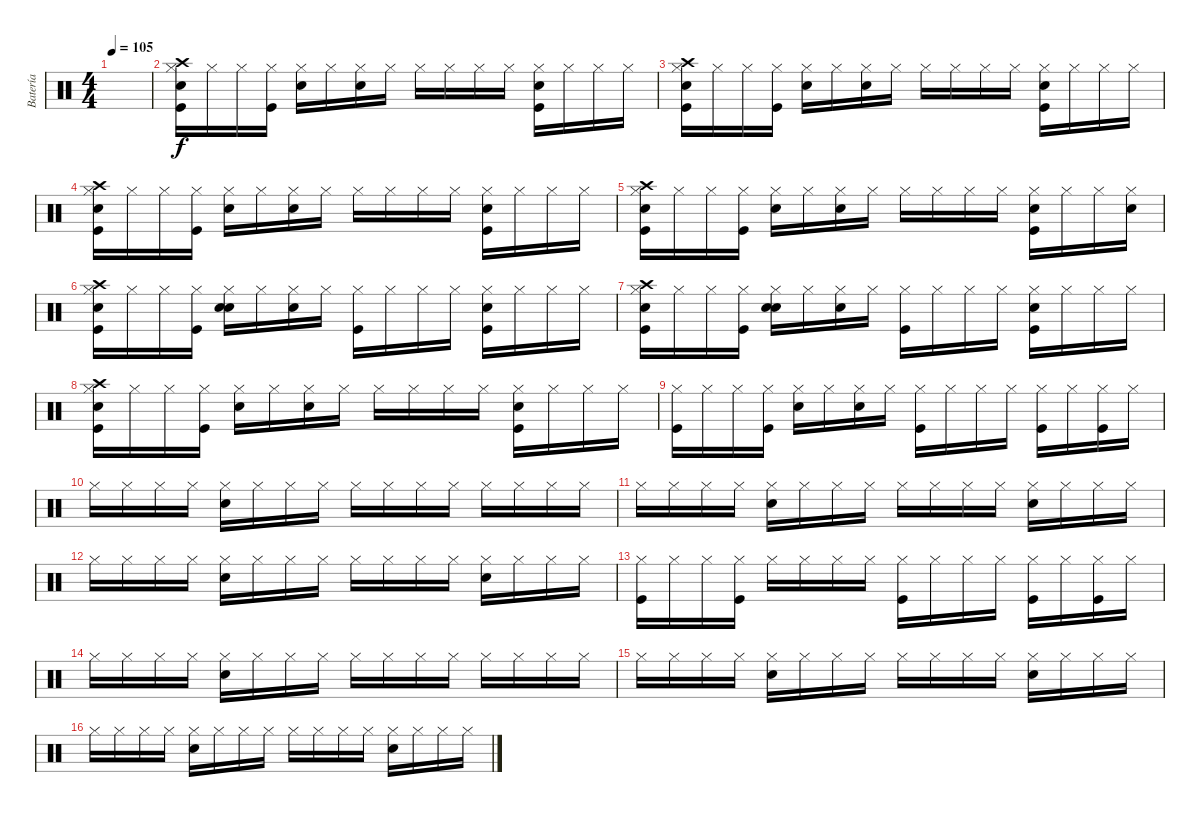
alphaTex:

\track ("Batería" "Batería") {instrument percussion}
\staff {score}
\articulation defaults
\ts (4 4)
\tempo 105
\clef neutral
\ks c
|
("Hi-Hat (closed)" "Kick (hit)" "Snare (hit) 2" "Crash high (hit)").16 "Hi-Hat (closed)".16 "Hi-Hat (closed)".16 ("Hi-Hat (closed)" "Kick (hit)").16 ("Hi-Hat (closed)" "Hand Clap (hit)").16 "Hi-Hat (closed)".16 ("Hi-Hat (closed)" "Hand Clap (hit)").16 "Hi-Hat (closed)".16 "Hi-Hat (closed)".16 "Hi-Hat (closed)".16 "Hi-Hat (closed)".16 "Hi-Hat (closed)".16 ("Hi-Hat (closed)" "Kick (hit)" "Snare (hit) 2").16 "Hi-Hat (closed)".16 "Hi-Hat (closed)".16 "Hi-Hat (closed)".16 |
("Hi-Hat (closed)" "Kick (hit)" "Snare (hit) 2" "Crash high (hit)").16 "Hi-Hat (closed)".16 "Hi-Hat (closed)".16 ("Hi-Hat (closed)" "Kick (hit)").16 ("Hi-Hat (closed)" "Hand Clap (hit)").16 "Hi-Hat (closed)".16 ("Hi-Hat (closed)" "Hand Clap (hit)").16 "Hi-Hat (closed)".16 "Hi-Hat (closed)".16 "Hi-Hat (closed)".16 "Hi-Hat (closed)".16 "Hi-Hat (closed)".16 ("Hi-Hat (closed)" "Kick (hit)" "Snare (hit) 2").16 "Hi-Hat (closed)".16 "Hi-Hat (closed)".16 "Hi-Hat (closed)".16 |
("Hi-Hat (closed)" "Kick (hit)" "Snare (hit) 2" "Crash high (hit)").16 "Hi-Hat (closed)".16 "Hi-Hat (closed)".16 ("Hi-Hat (closed)" "Kick (hit)").16 ("Hi-Hat (closed)" "Hand Clap (hit)").16 "Hi-Hat (closed)".16 ("Hi-Hat (closed)" "Hand Clap (hit)").16 "Hi-Hat (closed)".16 "Hi-Hat (closed)".16 "Hi-Hat (closed)".16 "Hi-Hat (closed)".16 "Hi-Hat (closed)".16 ("Hi-Hat (closed)" "Kick (hit)" "Snare (hit) 2").16 "Hi-Hat (closed)".16 "Hi-Hat (closed)".16 "Hi-Hat (closed)".16 |
("Hi-Hat (closed)" "Kick (hit)" "Snare (hit) 2" "Crash high (hit)").16 "Hi-Hat (closed)".16 "Hi-Hat (closed)".16 ("Hi-Hat (closed)" "Kick (hit)").16 ("Hi-Hat (closed)" "Hand Clap (hit)").16 "Hi-Hat (closed)".16 ("Hi-Hat (closed)" "Hand Clap (hit)").16 "Hi-Hat (closed)".16 "Hi-Hat (closed)".16 "Hi-Hat (closed)".16 "Hi-Hat (closed)".16 "Hi-Hat (closed)".16 ("Hi-Hat (closed)" "Kick (hit)" "Snare (hit) 2").16 "Hi-Hat (closed)".16 "Hi-Hat (closed)".16 ("Hi-Hat (closed)" "Snare (hit)").16 |
("Hi-Hat (closed)" "Kick (hit)" "Snare (hit) 2" "Crash high (hit)").16 "Hi-Hat (closed)".16 "Hi-Hat (closed)".16 ("Hi-Hat (closed)" "Kick (hit)").16 ("Hi-Hat (closed)" "Hand Clap (hit)" "Snare (hit) 2").16 "Hi-Hat (closed)".16 ("Hi-Hat (closed)" "Hand Clap (hit)").16 "Hi-Hat (closed)".16 ("Hi-Hat (closed)" "Kick (hit)").16 "Hi-Hat (closed)".16 "Hi-Hat (closed)".16 "Hi-Hat (closed)".16 ("Hi-Hat (closed)" "Kick (hit)" "Snare (hit) 2").16 "Hi-Hat (closed)".16 "Hi-Hat (closed)".16 "Hi-Hat (closed)".16 |
("Hi-Hat (closed)" "Kick (hit)" "Snare (hit) 2" "Crash high (hit)").16 "Hi-Hat (closed)".16 "Hi-Hat (closed)".16 ("Hi-Hat (closed)" "Kick (hit)").16 ("Hi-Hat (closed)" "Hand Clap (hit)" "Snare (hit) 2").16 "Hi-Hat (closed)".16 ("Hi-Hat (closed)" "Hand Clap (hit)").16 "Hi-Hat (closed)".16 ("Hi-Hat (closed)" "Kick (hit)").16 "Hi-Hat (closed)".16 "Hi-Hat (closed)".16 "Hi-Hat (closed)".16 ("Hi-Hat (closed)" "Kick (hit)" "Snare (hit) 2").16 "Hi-Hat (closed)".16 "Hi-Hat (closed)".16 "Hi-Hat (closed)".16 |
("Hi-Hat (closed)" "Kick (hit)" "Snare (hit) 2" "Crash high (hit)").16 "Hi-Hat (closed)".16 "Hi-Hat (closed)".16 ("Hi-Hat (closed)" "Kick (hit)").16 ("Hi-Hat (closed)" "Hand Clap (hit)").16 "Hi-Hat (closed)".16 ("Hi-Hat (closed)" "Hand Clap (hit)").16 "Hi-Hat (closed)".16 "Hi-Hat (closed)".16 "Hi-Hat (closed)".16 "Hi-Hat (closed)".16 "Hi-Hat (closed)".16 ("Hi-Hat (closed)" "Kick (hit)" "Snare (hit) 2").16 "Hi-Hat (closed)".16 "Hi-Hat (closed)".16 "Hi-Hat (closed)".16 |
("Hi-Hat (closed)" "Kick (hit)").16 "Hi-Hat (closed)".16 "Hi-Hat (closed)".16 ("Hi-Hat (closed)" "Kick (hit)").16 ("Hi-Hat (closed)" "Hand Clap (hit)").16 "Hi-Hat (closed)".16 ("Hi-Hat (closed)" "Hand Clap (hit)").16 "Hi-Hat (closed)".16 ("Hi-Hat (closed)" "Kick (hit)").16 "Hi-Hat (closed)".16 "Hi-Hat (closed)".16 "Hi-Hat (closed)".16 ("Hi-Hat (closed)" "Kick (hit)").16 "Hi-Hat (closed)".16 ("Hi-Hat (closed)" "Kick (hit)").16 "Hi-Hat (closed)".16 |
"Hi-Hat (closed)".16 "Hi-Hat (closed)".16 "Hi-Hat (closed)".16 "Hi-Hat (closed)".16 ("Hi-Hat (closed)" "Snare (hit) 2").16 "Hi-Hat (closed)".16 "Hi-Hat (closed)".16 "Hi-Hat (closed)".16 "Hi-Hat (closed)".16 "Hi-Hat (closed)".16 "Hi-Hat (closed)".16 "Hi-Hat (closed)".16 "Hi-Hat (closed)".16 "Hi-Hat (closed)".16 "Hi-Hat (closed)".16 "Hi-Hat (closed)".16 |
"Hi-Hat (closed)".16 "Hi-Hat (closed)".16 "Hi-Hat (closed)".16 "Hi-Hat (closed)".16 ("Hi-Hat (closed)" "Snare (hit) 2").16 "Hi-Hat (closed)".16 "Hi-Hat (closed)".16 "Hi-Hat (closed)".16 "Hi-Hat (closed)".16 "Hi-Hat (closed)".16 "Hi-Hat (closed)".16 "Hi-Hat (closed)".16 ("Hi-Hat (closed)" "Snare (hit) 2").16 "Hi-Hat (closed)".16 "Hi-Hat (closed)".16 "Hi-Hat (closed)".16 |
"Hi-Hat (closed)".16 "Hi-Hat (closed)".16 "Hi-Hat (closed)".16 "Hi-Hat (closed)".16 ("Hi-Hat (closed)" "Snare (hit) 2").16 "Hi-Hat (closed)".16 "Hi-Hat (closed)".16 "Hi-Hat (closed)".16 "Hi-Hat (closed)".16 "Hi-Hat (closed)".16 "Hi-Hat (closed)".16 "Hi-Hat (closed)".16 ("Hi-Hat (closed)" "Snare (hit) 2").16 "Hi-Hat (closed)".16 "Hi-Hat (closed)".16 "Hi-Hat (closed)".16 |
("Hi-Hat (closed)" "Kick (hit)").16 "Hi-Hat (closed)".16 "Hi-Hat (closed)".16 ("Hi-Hat (closed)" "Kick (hit)").16 "Hi-Hat (closed)".16 "Hi-Hat (closed)".16 "Hi-Hat (closed)".16 "Hi-Hat (closed)".16 ("Hi-Hat (closed)" "Kick (hit)").16 "Hi-Hat (closed)".16 "Hi-Hat (closed)".16 "Hi-Hat (closed)".16 ("Hi-Hat (closed)" "Kick (hit)").16 "Hi-Hat (closed)".16 ("Hi-Hat (closed)" "Kick (hit)").16 "Hi-Hat (closed)".16 |
"Hi-Hat (closed)".16 "Hi-Hat (closed)".16 "Hi-Hat (closed)".16 "Hi-Hat (closed)".16 ("Hi-Hat (closed)" "Snare (hit) 2").16 "Hi-Hat (closed)".16 "Hi-Hat (closed)".16 "Hi-Hat (closed)".16 "Hi-Hat (closed)".16 "Hi-Hat (closed)".16 "Hi-Hat (closed)".16 "Hi-Hat (closed)".16 "Hi-Hat (closed)".16 "Hi-Hat (closed)".16 "Hi-Hat (closed)".16 "Hi-Hat (closed)".16 |
"Hi-Hat (closed)".16 "Hi-Hat (closed)".16 "Hi-Hat (closed)".16 "Hi-Hat (closed)".16 ("Hi-Hat (closed)" "Snare (hit) 2").16 "Hi-Hat (closed)".16 "Hi-Hat (closed)".16 "Hi-Hat (closed)".16 "Hi-Hat (closed)".16 "Hi-Hat (closed)".16 "Hi-Hat (closed)".16 "Hi-Hat (closed)".16 ("Hi-Hat (closed)" "Snare (hit) 2").16 "Hi-Hat (closed)".16 "Hi-Hat (closed)".16 "Hi-Hat (closed)".16 |
"Hi-Hat (closed)".16 "Hi-Hat (closed)".16 "Hi-Hat (closed)".16 "Hi-Hat (closed)".16 ("Hi-Hat (closed)" "Snare (hit) 2").16 "Hi-Hat (closed)".16 "Hi-Hat (closed)".16 "Hi-Hat (closed)".16 "Hi-Hat (closed)".16 "Hi-Hat (closed)".16 "Hi-Hat (closed)".16 "Hi-Hat (closed)".16 ("Hi-Hat (closed)" "Snare (hit) 2").16 "Hi-Hat (closed)".16 "Hi-Hat (closed)".16 "Hi-Hat (closed)".16
